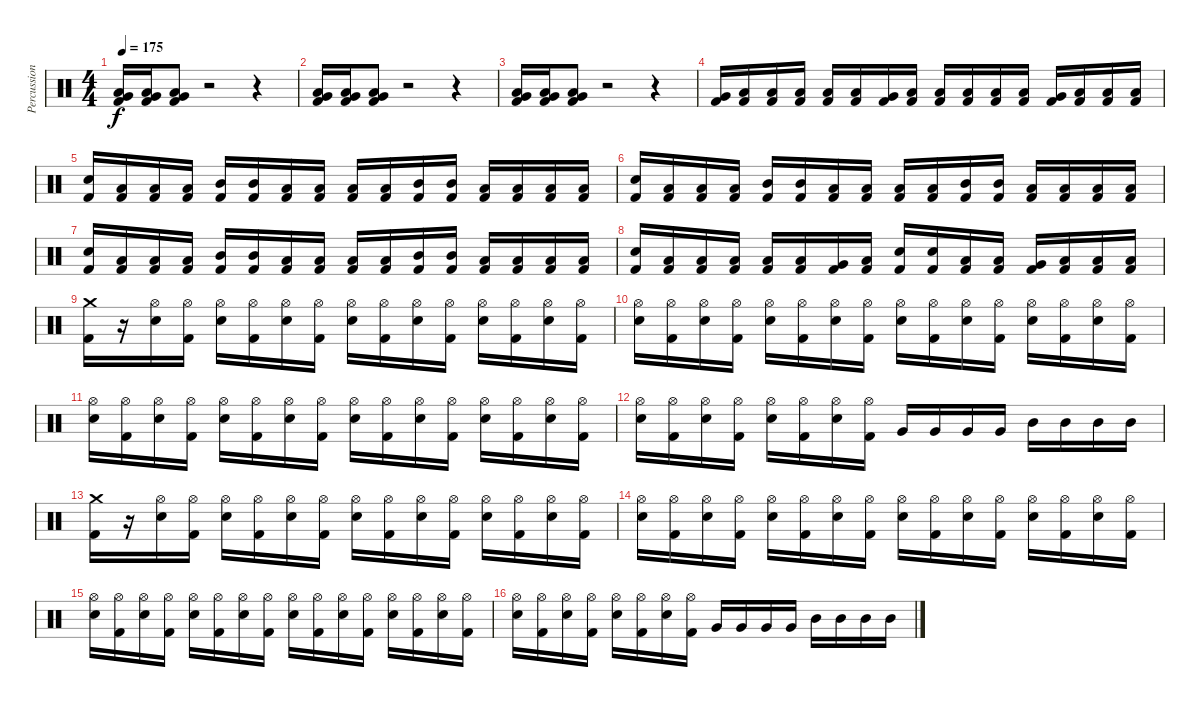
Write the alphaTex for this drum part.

\track ("Percussion" "Percussion") {instrument percussion}
\staff {score}
\articulation defaults
\ts (4 4)
\tempo 175
\clef neutral
\ks c
("Low Tom (hit)" "Very Low Tom (hit)" "Kick (hit) 2").16{dy f} ("Low Tom (hit)" "Very Low Tom (hit)" "Kick (hit) 2").16 ("Low Tom (hit)" "Very Low Tom (hit)" "Kick (hit) 2").8 r.2 r.4 |
("Low Tom (hit)" "Very Low Tom (hit)" "Kick (hit) 2").16 ("Low Tom (hit)" "Very Low Tom (hit)" "Kick (hit) 2").16 ("Low Tom (hit)" "Very Low Tom (hit)" "Kick (hit) 2").8 r.2 r.4 |
("Low Tom (hit)" "Very Low Tom (hit)" "Kick (hit) 2").16 ("Low Tom (hit)" "Very Low Tom (hit)" "Kick (hit) 2").16 ("Low Tom (hit)" "Very Low Tom (hit)" "Kick (hit) 2").8 r.2 r.4 |
("Very Low Tom (hit)" "Kick (hit) 2").16 ("Low Tom (hit)" "Kick (hit) 2").16 ("Low Tom (hit)" "Kick (hit) 2").16 ("Low Tom (hit)" "Kick (hit) 2").16 ("Low Tom (hit)" "Kick (hit) 2").16 ("Low Tom (hit)" "Kick (hit) 2").16 ("Very Low Tom (hit)" "Kick (hit) 2").16 ("Low Tom (hit)" "Kick (hit) 2").16 ("Low Tom (hit)" "Kick (hit) 2").16 ("Low Tom (hit)" "Kick (hit) 2").16 ("Low Tom (hit)" "Kick (hit) 2").16 ("Low Tom (hit)" "Kick (hit) 2").16 ("Very Low Tom (hit)" "Kick (hit) 2").16 ("Low Tom (hit)" "Kick (hit) 2").16 ("Low Tom (hit)" "Kick (hit) 2").16 ("Low Tom (hit)" "Kick (hit) 2").16 |
("Electric Snare (hit)" "Kick (hit) 2").16 ("Low Tom (hit)" "Kick (hit) 2").16 ("Low Tom (hit)" "Kick (hit) 2").16 ("Low Tom (hit)" "Kick (hit) 2").16 ("Mid Tom (hit)" "Kick (hit) 2").16 ("Mid Tom (hit)" "Kick (hit) 2").16 ("Low Tom (hit)" "Kick (hit) 2").16 ("Low Tom (hit)" "Kick (hit) 2").16 ("Low Tom (hit)" "Kick (hit) 2").16 ("Low Tom (hit)" "Kick (hit) 2").16 ("Mid Tom (hit)" "Kick (hit) 2").16 ("Mid Tom (hit)" "Kick (hit) 2").16 ("Low Tom (hit)" "Kick (hit) 2").16 ("Low Tom (hit)" "Kick (hit) 2").16 ("Low Tom (hit)" "Kick (hit) 2").16 ("Low Tom (hit)" "Kick (hit) 2").16 |
("Electric Snare (hit)" "Kick (hit) 2").16 ("Low Tom (hit)" "Kick (hit) 2").16 ("Low Tom (hit)" "Kick (hit) 2").16 ("Low Tom (hit)" "Kick (hit) 2").16 ("Mid Tom (hit)" "Kick (hit) 2").16 ("Mid Tom (hit)" "Kick (hit) 2").16 ("Low Tom (hit)" "Kick (hit) 2").16 ("Low Tom (hit)" "Kick (hit) 2").16 ("Low Tom (hit)" "Kick (hit) 2").16 ("Low Tom (hit)" "Kick (hit) 2").16 ("Mid Tom (hit)" "Kick (hit) 2").16 ("Mid Tom (hit)" "Kick (hit) 2").16 ("Low Tom (hit)" "Kick (hit) 2").16 ("Low Tom (hit)" "Kick (hit) 2").16 ("Low Tom (hit)" "Kick (hit) 2").16 ("Low Tom (hit)" "Kick (hit) 2").16 |
("Electric Snare (hit)" "Kick (hit) 2").16 ("Low Tom (hit)" "Kick (hit) 2").16 ("Low Tom (hit)" "Kick (hit) 2").16 ("Low Tom (hit)" "Kick (hit) 2").16 ("Mid Tom (hit)" "Kick (hit) 2").16 ("Mid Tom (hit)" "Kick (hit) 2").16 ("Low Tom (hit)" "Kick (hit) 2").16 ("Low Tom (hit)" "Kick (hit) 2").16 ("Low Tom (hit)" "Kick (hit) 2").16 ("Low Tom (hit)" "Kick (hit) 2").16 ("Mid Tom (hit)" "Kick (hit) 2").16 ("Mid Tom (hit)" "Kick (hit) 2").16 ("Low Tom (hit)" "Kick (hit) 2").16 ("Low Tom (hit)" "Kick (hit) 2").16 ("Low Tom (hit)" "Kick (hit) 2").16 ("Low Tom (hit)" "Kick (hit) 2").16 |
("Electric Snare (hit)" "Kick (hit) 2").16 ("Low Tom (hit)" "Kick (hit) 2").16 ("Low Tom (hit)" "Kick (hit) 2").16 ("Low Tom (hit)" "Kick (hit) 2").16 ("Low Tom (hit)" "Kick (hit) 2").16 ("Low Tom (hit)" "Kick (hit) 2").16 ("Very Low Tom (hit)" "Kick (hit) 2").16 ("Low Tom (hit)" "Kick (hit) 2").16 ("Electric Snare (hit)" "Kick (hit) 2").16 ("Electric Snare (hit)" "Kick (hit) 2").16 ("Low Tom (hit)" "Kick (hit) 2").16 ("Low Tom (hit)" "Kick (hit) 2").16 ("Very Low Tom (hit)" "Kick (hit) 2").16 ("Low Tom (hit)" "Kick (hit) 2").16 ("Low Tom (hit)" "Kick (hit) 2").16 ("Low Tom (hit)" "Kick (hit) 2").16 |
("Kick (hit) 2" "Crash medium (hit)").16 r.16 ("Electric Snare (hit)" "Hi-Hat (open)").16 ("Kick (hit) 2" "Hi-Hat (open)").16 ("Electric Snare (hit)" "Hi-Hat (open)").16 ("Kick (hit) 2" "Hi-Hat (open)").16 ("Electric Snare (hit)" "Hi-Hat (open)").16 ("Kick (hit) 2" "Hi-Hat (open)").16 ("Electric Snare (hit)" "Hi-Hat (open)").16 ("Kick (hit) 2" "Hi-Hat (open)").16 ("Electric Snare (hit)" "Hi-Hat (open)").16 ("Kick (hit) 2" "Hi-Hat (open)").16 ("Electric Snare (hit)" "Hi-Hat (open)").16 ("Kick (hit) 2" "Hi-Hat (open)").16 ("Electric Snare (hit)" "Hi-Hat (open)").16 ("Kick (hit) 2" "Hi-Hat (open)").16 |
("Electric Snare (hit)" "Hi-Hat (open)").16 ("Kick (hit) 2" "Hi-Hat (open)").16 ("Electric Snare (hit)" "Hi-Hat (open)").16 ("Kick (hit) 2" "Hi-Hat (open)").16 ("Electric Snare (hit)" "Hi-Hat (open)").16 ("Kick (hit) 2" "Hi-Hat (open)").16 ("Electric Snare (hit)" "Hi-Hat (open)").16 ("Kick (hit) 2" "Hi-Hat (open)").16 ("Electric Snare (hit)" "Hi-Hat (open)").16 ("Kick (hit) 2" "Hi-Hat (open)").16 ("Electric Snare (hit)" "Hi-Hat (open)").16 ("Kick (hit) 2" "Hi-Hat (open)").16 ("Electric Snare (hit)" "Hi-Hat (open)").16 ("Kick (hit) 2" "Hi-Hat (open)").16 ("Electric Snare (hit)" "Hi-Hat (open)").16 ("Kick (hit) 2" "Hi-Hat (open)").16 |
("Electric Snare (hit)" "Hi-Hat (open)").16 ("Kick (hit) 2" "Hi-Hat (open)").16 ("Electric Snare (hit)" "Hi-Hat (open)").16 ("Kick (hit) 2" "Hi-Hat (open)").16 ("Electric Snare (hit)" "Hi-Hat (open)").16 ("Kick (hit) 2" "Hi-Hat (open)").16 ("Electric Snare (hit)" "Hi-Hat (open)").16 ("Kick (hit) 2" "Hi-Hat (open)").16 ("Electric Snare (hit)" "Hi-Hat (open)").16 ("Kick (hit) 2" "Hi-Hat (open)").16 ("Electric Snare (hit)" "Hi-Hat (open)").16 ("Kick (hit) 2" "Hi-Hat (open)").16 ("Electric Snare (hit)" "Hi-Hat (open)").16 ("Kick (hit) 2" "Hi-Hat (open)").16 ("Electric Snare (hit)" "Hi-Hat (open)").16 ("Kick (hit) 2" "Hi-Hat (open)").16 |
("Electric Snare (hit)" "Hi-Hat (open)").16 ("Kick (hit) 2" "Hi-Hat (open)").16 ("Electric Snare (hit)" "Hi-Hat (open)").16 ("Kick (hit) 2" "Hi-Hat (open)").16 ("Electric Snare (hit)" "Hi-Hat (open)").16 ("Kick (hit) 2" "Hi-Hat (open)").16 ("Electric Snare (hit)" "Hi-Hat (open)").16 ("Kick (hit) 2" "Hi-Hat (open)").16 "Very Low Tom (hit)".16 "Very Low Tom (hit)".16 "Very Low Tom (hit)".16 "Very Low Tom (hit)".16 "Mid Tom (hit)".16 "Mid Tom (hit)".16 "Mid Tom (hit)".16 "Mid Tom (hit)".16 |
("Kick (hit) 2" "Crash medium (hit)").16 r.16 ("Electric Snare (hit)" "Hi-Hat (open)").16 ("Kick (hit) 2" "Hi-Hat (open)").16 ("Electric Snare (hit)" "Hi-Hat (open)").16 ("Kick (hit) 2" "Hi-Hat (open)").16 ("Electric Snare (hit)" "Hi-Hat (open)").16 ("Kick (hit) 2" "Hi-Hat (open)").16 ("Electric Snare (hit)" "Hi-Hat (open)").16 ("Kick (hit) 2" "Hi-Hat (open)").16 ("Electric Snare (hit)" "Hi-Hat (open)").16 ("Kick (hit) 2" "Hi-Hat (open)").16 ("Electric Snare (hit)" "Hi-Hat (open)").16 ("Kick (hit) 2" "Hi-Hat (open)").16 ("Electric Snare (hit)" "Hi-Hat (open)").16 ("Kick (hit) 2" "Hi-Hat (open)").16 |
("Electric Snare (hit)" "Hi-Hat (open)").16 ("Kick (hit) 2" "Hi-Hat (open)").16 ("Electric Snare (hit)" "Hi-Hat (open)").16 ("Kick (hit) 2" "Hi-Hat (open)").16 ("Electric Snare (hit)" "Hi-Hat (open)").16 ("Kick (hit) 2" "Hi-Hat (open)").16 ("Electric Snare (hit)" "Hi-Hat (open)").16 ("Kick (hit) 2" "Hi-Hat (open)").16 ("Electric Snare (hit)" "Hi-Hat (open)").16 ("Kick (hit) 2" "Hi-Hat (open)").16 ("Electric Snare (hit)" "Hi-Hat (open)").16 ("Kick (hit) 2" "Hi-Hat (open)").16 ("Electric Snare (hit)" "Hi-Hat (open)").16 ("Kick (hit) 2" "Hi-Hat (open)").16 ("Electric Snare (hit)" "Hi-Hat (open)").16 ("Kick (hit) 2" "Hi-Hat (open)").16 |
("Electric Snare (hit)" "Hi-Hat (open)").16 ("Kick (hit) 2" "Hi-Hat (open)").16 ("Electric Snare (hit)" "Hi-Hat (open)").16 ("Kick (hit) 2" "Hi-Hat (open)").16 ("Electric Snare (hit)" "Hi-Hat (open)").16 ("Kick (hit) 2" "Hi-Hat (open)").16 ("Electric Snare (hit)" "Hi-Hat (open)").16 ("Kick (hit) 2" "Hi-Hat (open)").16 ("Electric Snare (hit)" "Hi-Hat (open)").16 ("Kick (hit) 2" "Hi-Hat (open)").16 ("Electric Snare (hit)" "Hi-Hat (open)").16 ("Kick (hit) 2" "Hi-Hat (open)").16 ("Electric Snare (hit)" "Hi-Hat (open)").16 ("Kick (hit) 2" "Hi-Hat (open)").16 ("Electric Snare (hit)" "Hi-Hat (open)").16 ("Kick (hit) 2" "Hi-Hat (open)").16 |
("Electric Snare (hit)" "Hi-Hat (open)").16 ("Kick (hit) 2" "Hi-Hat (open)").16 ("Electric Snare (hit)" "Hi-Hat (open)").16 ("Kick (hit) 2" "Hi-Hat (open)").16 ("Electric Snare (hit)" "Hi-Hat (open)").16 ("Kick (hit) 2" "Hi-Hat (open)").16 ("Electric Snare (hit)" "Hi-Hat (open)").16 ("Kick (hit) 2" "Hi-Hat (open)").16 "Very Low Tom (hit)".16 "Very Low Tom (hit)".16 "Very Low Tom (hit)".16 "Very Low Tom (hit)".16 "Mid Tom (hit)".16 "Mid Tom (hit)".16 "Mid Tom (hit)".16 "Mid Tom (hit)".16
